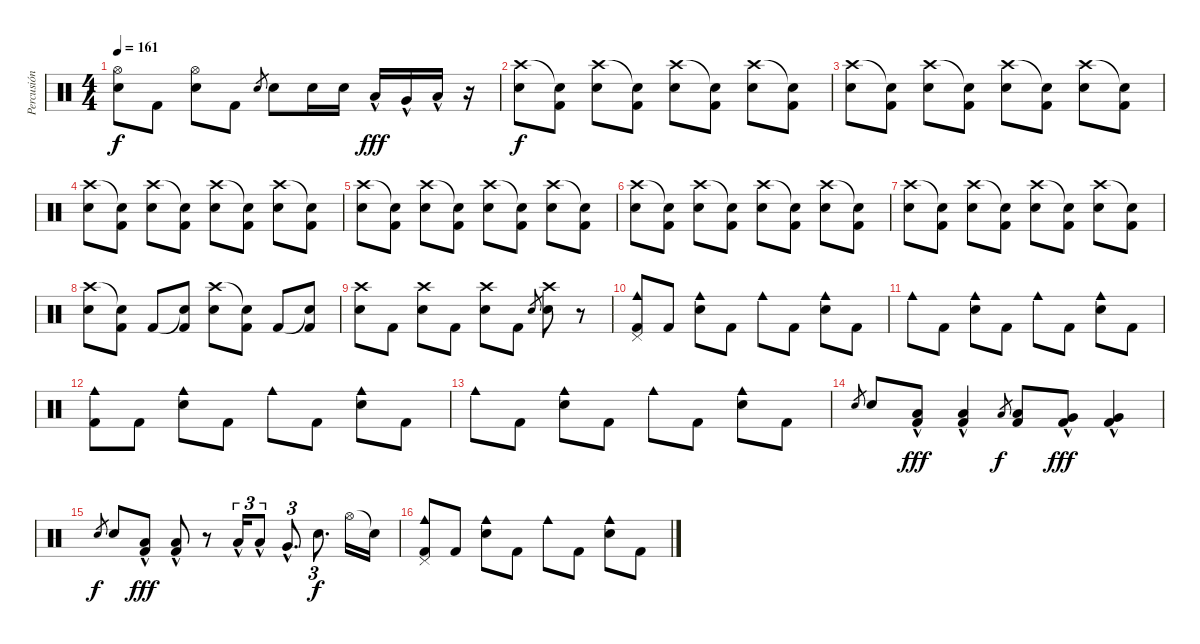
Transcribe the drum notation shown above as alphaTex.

\track ("Percusión" "Percusión") {instrument percussion}
\staff {score}
\articulation defaults
\ts (4 4)
\tempo 161
\clef neutral
\ks c
("Hi-Hat (open)" "Snare (hit) 2").8{dy f} "Kick (hit) 2".8 ("Hi-Hat (open)" "Snare (hit) 2").8 "Kick (hit) 2".8 "Snare (hit) 2".8{gr} "Snare (hit) 2".8 "Snare (hit) 2".16 "Snare (hit) 2".16 "Low Tom (hit)"{hac}.16{dy fff} "Very Low Tom (hit)"{hac}.16 "Low Floor Tom (hit)"{hac}.16 r.16 |
("Crash high (hit)" "Snare (hit) 2").8{dy f} ("Snare (hit)"{t} "Kick (hit) 2").8 ("Crash high (hit)" "Snare (hit) 2").8 ("Snare (hit)"{t} "Kick (hit) 2").8 ("Crash high (hit)" "Snare (hit) 2").8 ("Snare (hit)"{t} "Kick (hit) 2").8 ("Crash high (hit)" "Snare (hit) 2").8 ("Snare (hit)"{t} "Kick (hit) 2").8 |
("Crash high (hit)" "Snare (hit) 2").8 ("Snare (hit)"{t} "Kick (hit) 2").8 ("Crash high (hit)" "Snare (hit) 2").8 ("Snare (hit)"{t} "Kick (hit) 2").8 ("Crash high (hit)" "Snare (hit) 2").8 ("Snare (hit)"{t} "Kick (hit) 2").8 ("Crash high (hit)" "Snare (hit) 2").8 ("Snare (hit)"{t} "Kick (hit) 2").8 |
("Crash high (hit)" "Snare (hit) 2").8 ("Snare (hit)"{t} "Kick (hit) 2").8 ("Crash high (hit)" "Snare (hit) 2").8 ("Snare (hit)"{t} "Kick (hit) 2").8 ("Crash high (hit)" "Snare (hit) 2").8 ("Snare (hit)"{t} "Kick (hit) 2").8 ("Crash high (hit)" "Snare (hit) 2").8 ("Snare (hit)"{t} "Kick (hit) 2").8 |
("Crash high (hit)" "Snare (hit) 2").8 ("Snare (hit)"{t} "Kick (hit) 2").8 ("Crash high (hit)" "Snare (hit) 2").8 ("Snare (hit)"{t} "Kick (hit) 2").8 ("Crash high (hit)" "Snare (hit) 2").8 ("Snare (hit)"{t} "Kick (hit) 2").8 ("Crash high (hit)" "Snare (hit) 2").8 ("Snare (hit)"{t} "Kick (hit) 2").8 |
("Crash high (hit)" "Snare (hit) 2").8 ("Snare (hit)"{t} "Kick (hit) 2").8 ("Crash high (hit)" "Snare (hit) 2").8 ("Snare (hit)"{t} "Kick (hit) 2").8 ("Crash high (hit)" "Snare (hit) 2").8 ("Snare (hit)"{t} "Kick (hit) 2").8 ("Crash high (hit)" "Snare (hit) 2").8 ("Snare (hit)"{t} "Kick (hit) 2").8 |
("Crash high (hit)" "Snare (hit) 2").8 ("Snare (hit)"{t} "Kick (hit) 2").8 ("Crash high (hit)" "Snare (hit) 2").8 ("Snare (hit)"{t} "Kick (hit) 2").8 ("Crash high (hit)" "Snare (hit) 2").8 ("Snare (hit)"{t} "Kick (hit) 2").8 ("Crash high (hit)" "Snare (hit) 2").8 ("Snare (hit)"{t} "Kick (hit) 2").8 |
("Crash high (hit)" "Snare (hit) 2").8 ("Snare (hit)"{t} "Kick (hit) 2").8 "Kick (hit) 2".8 ("Snare (hit)"{t} "Kick (hit) 2").8 ("Crash high (hit)" "Snare (hit) 2").8 ("Snare (hit)"{t} "Kick (hit) 2").8 "Kick (hit) 2".8 ("Snare (hit)"{t} "Kick (hit) 2").8 |
("Crash high (hit)" "Snare (hit) 2").8 "Kick (hit) 2".8 ("Crash high (hit)" "Snare (hit) 2").8 "Kick (hit) 2".8 ("Crash high (hit)" "Snare (hit) 2").8 "Kick (hit) 2".8 "Snare (hit) 2".8{gr} ("Crash high (hit)" "Snare (hit) 2").8 r.8 |
("Cowbell medium (hit)" "Pedal Hi-Hat (hit)" "Kick (hit) 2").8 "Kick (hit) 2".8 ("Cowbell medium (hit)" "Snare (hit) 2").8 "Kick (hit) 2".8 "Cowbell medium (hit)".8 "Kick (hit) 2".8 ("Cowbell medium (hit)" "Snare (hit) 2").8 "Kick (hit) 2".8 |
"Cowbell medium (hit)".8 "Kick (hit) 2".8 ("Cowbell medium (hit)" "Snare (hit) 2").8 "Kick (hit) 2".8 "Cowbell medium (hit)".8 "Kick (hit) 2".8 ("Cowbell medium (hit)" "Snare (hit) 2").8 "Kick (hit) 2".8 |
("Cowbell medium (hit)" "Kick (hit) 2").8 "Kick (hit) 2".8 ("Cowbell medium (hit)" "Snare (hit) 2").8 "Kick (hit) 2".8 "Cowbell medium (hit)".8 "Kick (hit) 2".8 ("Cowbell medium (hit)" "Snare (hit) 2").8 "Kick (hit) 2".8 |
"Cowbell medium (hit)".8 "Kick (hit) 2".8 ("Cowbell medium (hit)" "Snare (hit) 2").8 "Kick (hit) 2".8 "Cowbell medium (hit)".8 "Kick (hit) 2".8 ("Cowbell medium (hit)" "Snare (hit) 2").8 "Kick (hit) 2".8 |
"Snare (hit) 2".8{gr} "Snare (hit) 2".8 ("Low Tom (hit)"{hac} "Kick (hit) 2").8{dy fff} ("Low Tom (hit)"{hac} "Kick (hit) 2").4 "Low Tom (hit)".8{gr dy f} ("Low Tom (hit)" "Kick (hit) 2").8 ("Very Low Tom (hit)"{hac} "Kick (hit) 2").8{dy fff} ("Very Low Tom (hit)"{hac} "Kick (hit) 2").4 |
"Snare (hit) 2".8{gr dy f} "Snare (hit) 2".8 ("Low Tom (hit)"{hac} "Kick (hit) 2").8{dy fff} ("Low Tom (hit)"{hac} "Kick (hit) 2").8 r.8 "Low Tom (hit)"{hac}.16{tu (3 2)} "Low Tom (hit)"{hac}.8{tu (3 2)} "Very Low Tom (hit)"{hac}.8{d tu (3 2)} "Snare (hit) 2".8{d tu (3 2) dy f} "Hi-Hat (open)".16 "Snare (hit)"{t}.16 |
("Pedal Hi-Hat (hit)" "Cowbell medium (hit)" "Kick (hit) 2").8 "Kick (hit) 2".8 ("Cowbell medium (hit)" "Snare (hit) 2").8 "Kick (hit) 2".8 "Cowbell medium (hit)".8 "Kick (hit) 2".8 ("Cowbell medium (hit)" "Snare (hit) 2").8 "Kick (hit) 2".8
